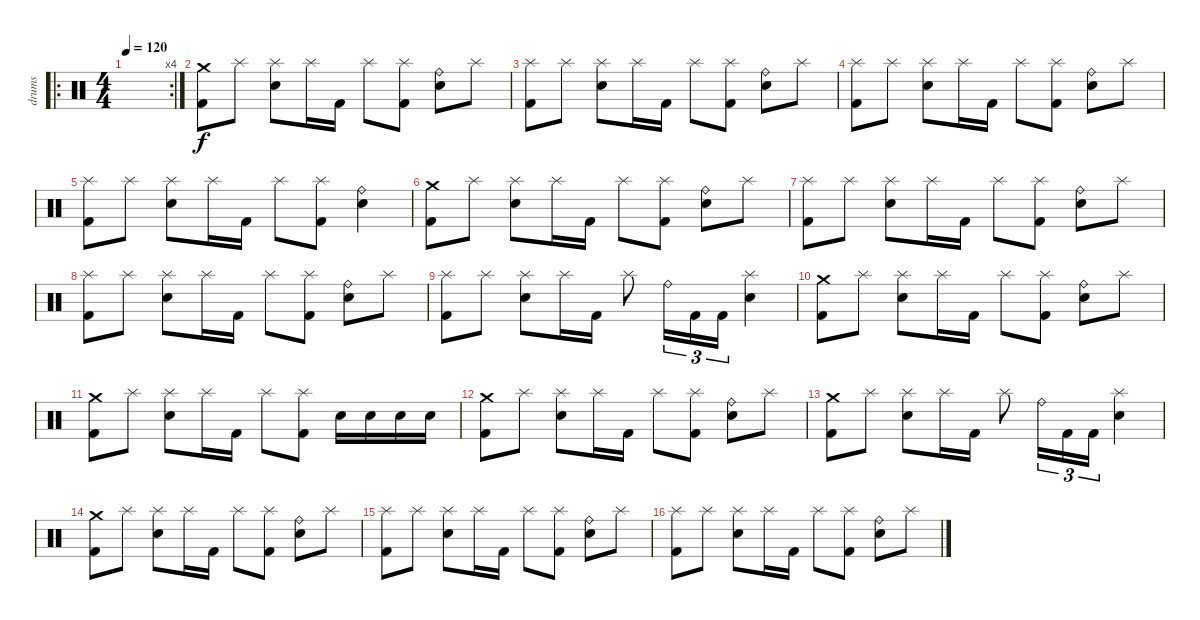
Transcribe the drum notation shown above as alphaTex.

\track ("drums" "drums") {instrument percussion}
\staff {score}
\articulation defaults
\ro
\rc 4
\ts (4 4)
\tempo 120
\clef neutral
\ks c
|
("Crash medium (hit)" "Kick (hit) 2").8 "Splash (hit)".8 ("Splash (hit)" "Electric Snare (hit)").8 "Splash (hit)".16 "Kick (hit) 2".16 "Splash (hit)".8 ("Splash (hit)" "Kick (hit) 2").8 ("Ride (bell)" "Electric Snare (hit)").8 "Splash (hit)".8 |
("Splash (hit)" "Kick (hit) 2").8 "Splash (hit)".8 ("Splash (hit)" "Electric Snare (hit)").8 "Splash (hit)".16 "Kick (hit) 2".16 "Splash (hit)".8 ("Splash (hit)" "Kick (hit) 2").8 ("Ride (bell)" "Electric Snare (hit)").8 "Splash (hit)".8 |
("Splash (hit)" "Kick (hit) 2").8 "Splash (hit)".8 ("Splash (hit)" "Electric Snare (hit)").8 "Splash (hit)".16 "Kick (hit) 2".16 "Splash (hit)".8 ("Splash (hit)" "Kick (hit) 2").8 ("Ride (bell)" "Electric Snare (hit)").8 "Splash (hit)".8 |
("Splash (hit)" "Kick (hit) 2").8 "Splash (hit)".8 ("Splash (hit)" "Electric Snare (hit)").8 "Splash (hit)".16 "Kick (hit) 2".16 "Splash (hit)".8 ("Splash (hit)" "Kick (hit) 2").8 ("Ride (bell)" "Electric Snare (hit)").4 |
("Crash medium (hit)" "Kick (hit) 2").8 "Splash (hit)".8 ("Splash (hit)" "Electric Snare (hit)").8 "Splash (hit)".16 "Kick (hit) 2".16 "Splash (hit)".8 ("Splash (hit)" "Kick (hit) 2").8 ("Ride (bell)" "Electric Snare (hit)").8 "Splash (hit)".8 |
("Splash (hit)" "Kick (hit) 2").8 "Splash (hit)".8 ("Splash (hit)" "Electric Snare (hit)").8 "Splash (hit)".16 "Kick (hit) 2".16 "Splash (hit)".8 ("Splash (hit)" "Kick (hit) 2").8 ("Ride (bell)" "Electric Snare (hit)").8 "Splash (hit)".8 |
("Splash (hit)" "Kick (hit) 2").8 "Splash (hit)".8 ("Splash (hit)" "Electric Snare (hit)").8 "Splash (hit)".16 "Kick (hit) 2".16 "Splash (hit)".8 ("Splash (hit)" "Kick (hit) 2").8 ("Ride (bell)" "Electric Snare (hit)").8 "Splash (hit)".8 |
("Splash (hit)" "Kick (hit) 2").8 "Splash (hit)".8 ("Splash (hit)" "Electric Snare (hit)").8 "Splash (hit)".16 "Kick (hit) 2".16 "Splash (hit)".8 "Ride (bell)".16{tu (3 2)} "Kick (hit) 2".16{tu (3 2)} "Kick (hit) 2".16{tu (3 2)} ("Splash (hit)" "Electric Snare (hit)").4 |
("Crash medium (hit)" "Kick (hit) 2").8 "Splash (hit)".8 ("Splash (hit)" "Electric Snare (hit)").8 "Splash (hit)".16 "Kick (hit) 2".16 "Splash (hit)".8 ("Splash (hit)" "Kick (hit) 2").8 ("Ride (bell)" "Electric Snare (hit)").8 "Splash (hit)".8 |
("Crash medium (hit)" "Kick (hit) 2").8 "Splash (hit)".8 ("Splash (hit)" "Electric Snare (hit)").8 "Splash (hit)".16 "Kick (hit) 2".16 "Splash (hit)".8 ("Splash (hit)" "Kick (hit) 2").8 "Electric Snare (hit)".16 "Electric Snare (hit)".16 "Electric Snare (hit)".16 "Electric Snare (hit)".16 |
("Crash medium (hit)" "Kick (hit) 2").8 "Splash (hit)".8 ("Splash (hit)" "Electric Snare (hit)").8 "Splash (hit)".16 "Kick (hit) 2".16 "Splash (hit)".8 ("Splash (hit)" "Kick (hit) 2").8 ("Ride (bell)" "Electric Snare (hit)").8 "Splash (hit)".8 |
("Crash medium (hit)" "Kick (hit) 2").8 "Splash (hit)".8 ("Splash (hit)" "Electric Snare (hit)").8 "Splash (hit)".16 "Kick (hit) 2".16 "Splash (hit)".8 "Ride (bell)".16{tu (3 2)} "Kick (hit) 2".16{tu (3 2)} "Kick (hit) 2".16{tu (3 2)} ("Splash (hit)" "Electric Snare (hit)").4 |
("Crash medium (hit)" "Kick (hit) 2").8 "Splash (hit)".8 ("Splash (hit)" "Electric Snare (hit)").8 "Splash (hit)".16 "Kick (hit) 2".16 "Splash (hit)".8 ("Splash (hit)" "Kick (hit) 2").8 ("Ride (bell)" "Electric Snare (hit)").8 "Splash (hit)".8 |
("Splash (hit)" "Kick (hit) 2").8 "Splash (hit)".8 ("Splash (hit)" "Electric Snare (hit)").8 "Splash (hit)".16 "Kick (hit) 2".16 "Splash (hit)".8 ("Splash (hit)" "Kick (hit) 2").8 ("Ride (bell)" "Electric Snare (hit)").8 "Splash (hit)".8 |
("Splash (hit)" "Kick (hit) 2").8 "Splash (hit)".8 ("Splash (hit)" "Electric Snare (hit)").8 "Splash (hit)".16 "Kick (hit) 2".16 "Splash (hit)".8 ("Splash (hit)" "Kick (hit) 2").8 ("Ride (bell)" "Electric Snare (hit)").8 "Splash (hit)".8
